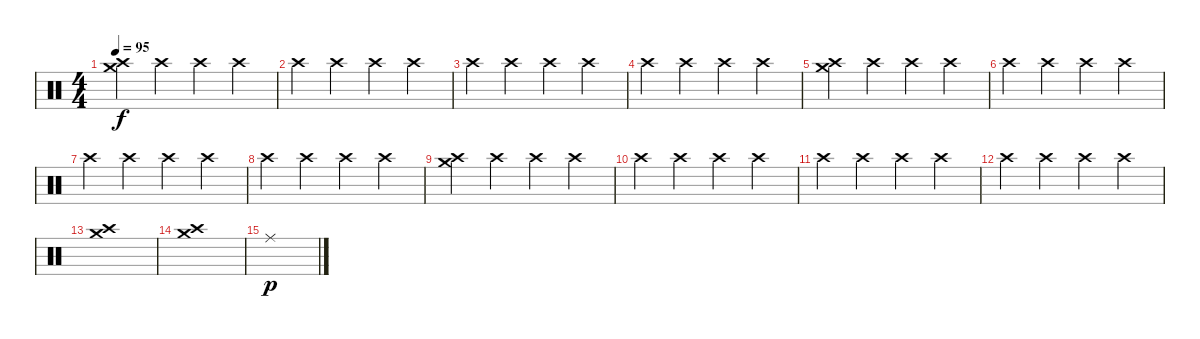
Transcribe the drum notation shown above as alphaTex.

\track "" {instrument percussion}
\staff {score}
\articulation defaults
\ts (4 4)
\tempo 95
\clef neutral
\ks c
("Crash medium (hit)" "Crash high (hit)").4{dy f} "Crash high (hit)".4 "Crash high (hit)".4 "Crash high (hit)".4 |
"Crash high (hit)".4 "Crash high (hit)".4 "Crash high (hit)".4 "Crash high (hit)".4 |
"Crash high (hit)".4 "Crash high (hit)".4 "Crash high (hit)".4 "Crash high (hit)".4 |
"Crash high (hit)".4 "Crash high (hit)".4 "Crash high (hit)".4 "Crash high (hit)".4 |
("Crash medium (hit)" "Crash high (hit)").4 "Crash high (hit)".4 "Crash high (hit)".4 "Crash high (hit)".4 |
"Crash high (hit)".4 "Crash high (hit)".4 "Crash high (hit)".4 "Crash high (hit)".4 |
"Crash high (hit)".4 "Crash high (hit)".4 "Crash high (hit)".4 "Crash high (hit)".4 |
"Crash high (hit)".4 "Crash high (hit)".4 "Crash high (hit)".4 "Crash high (hit)".4 |
("Crash medium (hit)" "Crash high (hit)").4 "Crash high (hit)".4 "Crash high (hit)".4 "Crash high (hit)".4 |
"Crash high (hit)".4 "Crash high (hit)".4 "Crash high (hit)".4 "Crash high (hit)".4 |
"Crash high (hit)".4 "Crash high (hit)".4 "Crash high (hit)".4 "Crash high (hit)".4 |
"Crash high (hit)".4 "Crash high (hit)".4 "Crash high (hit)".4 "Crash high (hit)".4 |
("Crash medium (hit)" "Crash high (hit)").1 |
("Crash medium (hit)" "Crash high (hit)").1 |
"Ride (middle)".1{dy p}
